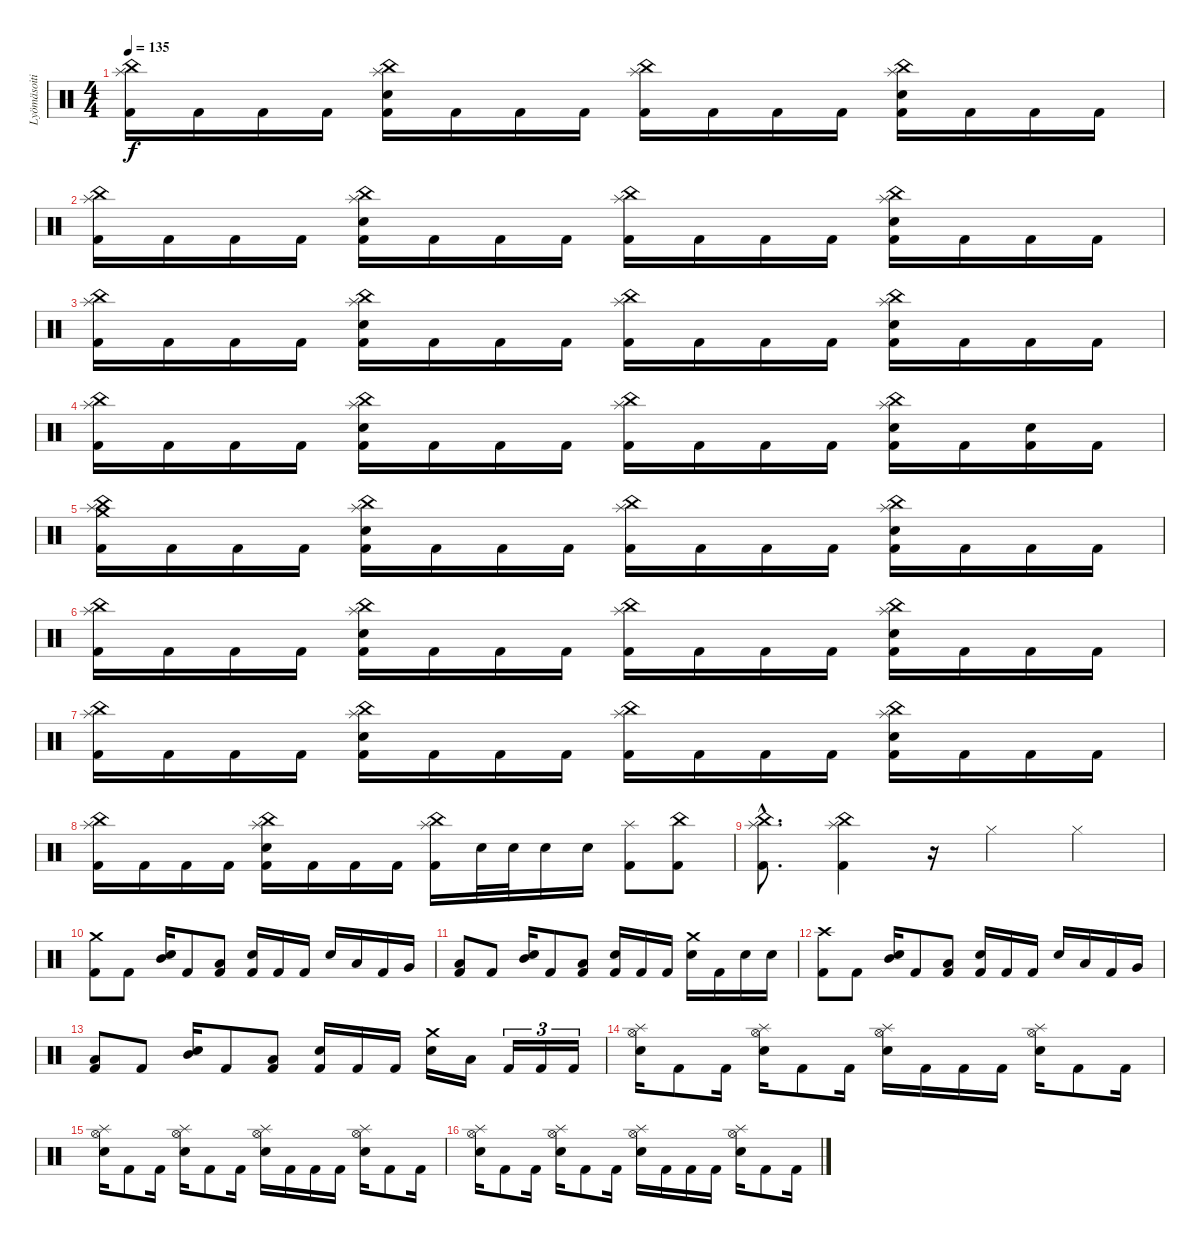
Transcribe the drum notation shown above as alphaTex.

\track ("Lyömäsoitin" "Lyömäsoiti") {instrument percussion}
\staff {score}
\articulation defaults
\ts (4 4)
\tempo 135
\clef neutral
\ks c
("China (hit)" "Splash (hit)" "Kick (hit) 2").16{dy f} "Kick (hit) 2".16 "Kick (hit) 2".16 "Kick (hit) 2".16 ("China (hit)" "Splash (hit)" "Electric Snare (hit)" "Kick (hit) 2").16 "Kick (hit) 2".16 "Kick (hit) 2".16 "Kick (hit) 2".16 ("China (hit)" "Splash (hit)" "Kick (hit) 2").16 "Kick (hit) 2".16 "Kick (hit) 2".16 "Kick (hit) 2".16 ("China (hit)" "Splash (hit)" "Electric Snare (hit)" "Kick (hit) 2").16 "Kick (hit) 2".16 "Kick (hit) 2".16 "Kick (hit) 2".16 |
("China (hit)" "Splash (hit)" "Kick (hit) 2").16 "Kick (hit) 2".16 "Kick (hit) 2".16 "Kick (hit) 2".16 ("China (hit)" "Splash (hit)" "Electric Snare (hit)" "Kick (hit) 2").16 "Kick (hit) 2".16 "Kick (hit) 2".16 "Kick (hit) 2".16 ("China (hit)" "Splash (hit)" "Kick (hit) 2").16 "Kick (hit) 2".16 "Kick (hit) 2".16 "Kick (hit) 2".16 ("China (hit)" "Splash (hit)" "Electric Snare (hit)" "Kick (hit) 2").16 "Kick (hit) 2".16 "Kick (hit) 2".16 "Kick (hit) 2".16 |
("China (hit)" "Splash (hit)" "Kick (hit) 2").16 "Kick (hit) 2".16 "Kick (hit) 2".16 "Kick (hit) 2".16 ("China (hit)" "Splash (hit)" "Electric Snare (hit)" "Kick (hit) 2").16 "Kick (hit) 2".16 "Kick (hit) 2".16 "Kick (hit) 2".16 ("China (hit)" "Splash (hit)" "Kick (hit) 2").16 "Kick (hit) 2".16 "Kick (hit) 2".16 "Kick (hit) 2".16 ("China (hit)" "Splash (hit)" "Electric Snare (hit)" "Kick (hit) 2").16 "Kick (hit) 2".16 "Kick (hit) 2".16 "Kick (hit) 2".16 |
("China (hit)" "Splash (hit)" "Kick (hit) 2").16 "Kick (hit) 2".16 "Kick (hit) 2".16 "Kick (hit) 2".16 ("China (hit)" "Splash (hit)" "Electric Snare (hit)" "Kick (hit) 2").16 "Kick (hit) 2".16 "Kick (hit) 2".16 "Kick (hit) 2".16 ("China (hit)" "Splash (hit)" "Kick (hit) 2").16 "Kick (hit) 2".16 "Kick (hit) 2".16 "Kick (hit) 2".16 ("China (hit)" "Splash (hit)" "Electric Snare (hit)" "Kick (hit) 2").16 "Kick (hit) 2".16 ("Electric Snare (hit)" "Kick (hit) 2").16 "Kick (hit) 2".16 |
("Crash medium (hit)" "China (hit)" "Splash (hit)" "Kick (hit) 2").16 "Kick (hit) 2".16 "Kick (hit) 2".16 "Kick (hit) 2".16 ("China (hit)" "Splash (hit)" "Electric Snare (hit)" "Kick (hit) 2").16 "Kick (hit) 2".16 "Kick (hit) 2".16 "Kick (hit) 2".16 ("China (hit)" "Splash (hit)" "Kick (hit) 2").16 "Kick (hit) 2".16 "Kick (hit) 2".16 "Kick (hit) 2".16 ("China (hit)" "Splash (hit)" "Electric Snare (hit)" "Kick (hit) 2").16 "Kick (hit) 2".16 "Kick (hit) 2".16 "Kick (hit) 2".16 |
("China (hit)" "Splash (hit)" "Kick (hit) 2").16 "Kick (hit) 2".16 "Kick (hit) 2".16 "Kick (hit) 2".16 ("China (hit)" "Splash (hit)" "Electric Snare (hit)" "Kick (hit) 2").16 "Kick (hit) 2".16 "Kick (hit) 2".16 "Kick (hit) 2".16 ("China (hit)" "Splash (hit)" "Kick (hit) 2").16 "Kick (hit) 2".16 "Kick (hit) 2".16 "Kick (hit) 2".16 ("China (hit)" "Splash (hit)" "Electric Snare (hit)" "Kick (hit) 2").16 "Kick (hit) 2".16 "Kick (hit) 2".16 "Kick (hit) 2".16 |
("China (hit)" "Splash (hit)" "Kick (hit) 2").16 "Kick (hit) 2".16 "Kick (hit) 2".16 "Kick (hit) 2".16 ("China (hit)" "Splash (hit)" "Electric Snare (hit)" "Kick (hit) 2").16 "Kick (hit) 2".16 "Kick (hit) 2".16 "Kick (hit) 2".16 ("China (hit)" "Splash (hit)" "Kick (hit) 2").16 "Kick (hit) 2".16 "Kick (hit) 2".16 "Kick (hit) 2".16 ("China (hit)" "Splash (hit)" "Electric Snare (hit)" "Kick (hit) 2").16 "Kick (hit) 2".16 "Kick (hit) 2".16 "Kick (hit) 2".16 |
("China (hit)" "Splash (hit)" "Kick (hit) 2").16 "Kick (hit) 2".16 "Kick (hit) 2".16 "Kick (hit) 2".16 ("China (hit)" "Splash (hit)" "Electric Snare (hit)" "Kick (hit) 2").16 "Kick (hit) 2".16 "Kick (hit) 2".16 "Kick (hit) 2".16 ("China (hit)" "Splash (hit)" "Kick (hit) 2").16 "Electric Snare (hit)".32 "Electric Snare (hit)".32 "Electric Snare (hit)".16 "Electric Snare (hit)".16 ("Splash (hit)" "Kick (hit) 2").8 ("China (hit)" "Kick (hit) 2").8 |
("China (hit)"{hac} "Splash (hit)"{hac} "Kick (hit) 2"{hac}).8{d} ("Splash (hit)" "China (hit)" "Kick (hit) 2").4 r.16 "Hi-Hat (closed)".4 "Hi-Hat (closed)".4 |
("Crash medium (hit)" "Kick (hit) 2").8 "Kick (hit) 2".8 ("Mid Tom (hit)" "Electric Snare (hit)").16 "Kick (hit) 2".8 ("Low Tom (hit)" "Kick (hit) 2").8 ("Electric Snare (hit)" "Kick (hit) 2").16 "Kick (hit) 2".16 "Kick (hit) 2".16 "Electric Snare (hit)".16 "Low Tom (hit)".16 "Kick (hit) 2".16 "Very Low Tom (hit)".16 |
("Low Floor Tom (hit)" "Kick (hit) 2").8 "Kick (hit) 2".8 ("Mid Tom (hit)" "Electric Snare (hit)").16 "Kick (hit) 2".8 ("Low Tom (hit)" "Kick (hit) 2").8 ("Electric Snare (hit)" "Kick (hit) 2").16 "Kick (hit) 2".16 "Kick (hit) 2".16 ("Crash medium (hit)" "Electric Snare (hit)").16 "Kick (hit) 2".16 "Electric Snare (hit)".16 "Electric Snare (hit)".16 |
("Crash high (hit)" "Kick (hit) 2").8 "Kick (hit) 2".8 ("Mid Tom (hit)" "Electric Snare (hit)").16 "Kick (hit) 2".8 ("Low Tom (hit)" "Kick (hit) 2").8 ("Electric Snare (hit)" "Kick (hit) 2").16 "Kick (hit) 2".16 "Kick (hit) 2".16 "Electric Snare (hit)".16 "Low Tom (hit)".16 "Kick (hit) 2".16 "Very Low Tom (hit)".16 |
("Low Floor Tom (hit)" "Kick (hit) 2").8 "Kick (hit) 2".8 ("Mid Tom (hit)" "Electric Snare (hit)").16 "Kick (hit) 2".8 ("Low Tom (hit)" "Kick (hit) 2").8 ("Electric Snare (hit)" "Kick (hit) 2").16 "Kick (hit) 2".16 "Kick (hit) 2".16 ("Crash medium (hit)" "Electric Snare (hit)").16 "Low Tom (hit)".16 "Kick (hit) 2".16{tu (3 2)} "Kick (hit) 2".16{tu (3 2)} "Kick (hit) 2".16{tu (3 2)} |
("Hi-Hat (open)" "Splash (hit)" "Electric Snare (hit)").16 "Kick (hit) 2".8 "Kick (hit) 2".16 ("Hi-Hat (open)" "Splash (hit)" "Electric Snare (hit)").16 "Kick (hit) 2".8 "Kick (hit) 2".16 ("Hi-Hat (open)" "Splash (hit)" "Electric Snare (hit)").16 "Kick (hit) 2".16 "Kick (hit) 2".16 "Kick (hit) 2".16 ("Hi-Hat (open)" "Splash (hit)" "Electric Snare (hit)").16 "Kick (hit) 2".8 "Kick (hit) 2".16 |
("Hi-Hat (open)" "Splash (hit)" "Electric Snare (hit)").16 "Kick (hit) 2".8 "Kick (hit) 2".16 ("Hi-Hat (open)" "Splash (hit)" "Electric Snare (hit)").16 "Kick (hit) 2".8 "Kick (hit) 2".16 ("Hi-Hat (open)" "Splash (hit)" "Electric Snare (hit)").16 "Kick (hit) 2".16 "Kick (hit) 2".16 "Kick (hit) 2".16 ("Hi-Hat (open)" "Splash (hit)" "Electric Snare (hit)").16 "Kick (hit) 2".8 "Kick (hit) 2".16 |
("Hi-Hat (open)" "Splash (hit)" "Electric Snare (hit)").16 "Kick (hit) 2".8 "Kick (hit) 2".16 ("Hi-Hat (open)" "Splash (hit)" "Electric Snare (hit)").16 "Kick (hit) 2".8 "Kick (hit) 2".16 ("Hi-Hat (open)" "Splash (hit)" "Electric Snare (hit)").16 "Kick (hit) 2".16 "Kick (hit) 2".16 "Kick (hit) 2".16 ("Hi-Hat (open)" "Splash (hit)" "Electric Snare (hit)").16 "Kick (hit) 2".8 "Kick (hit) 2".16
